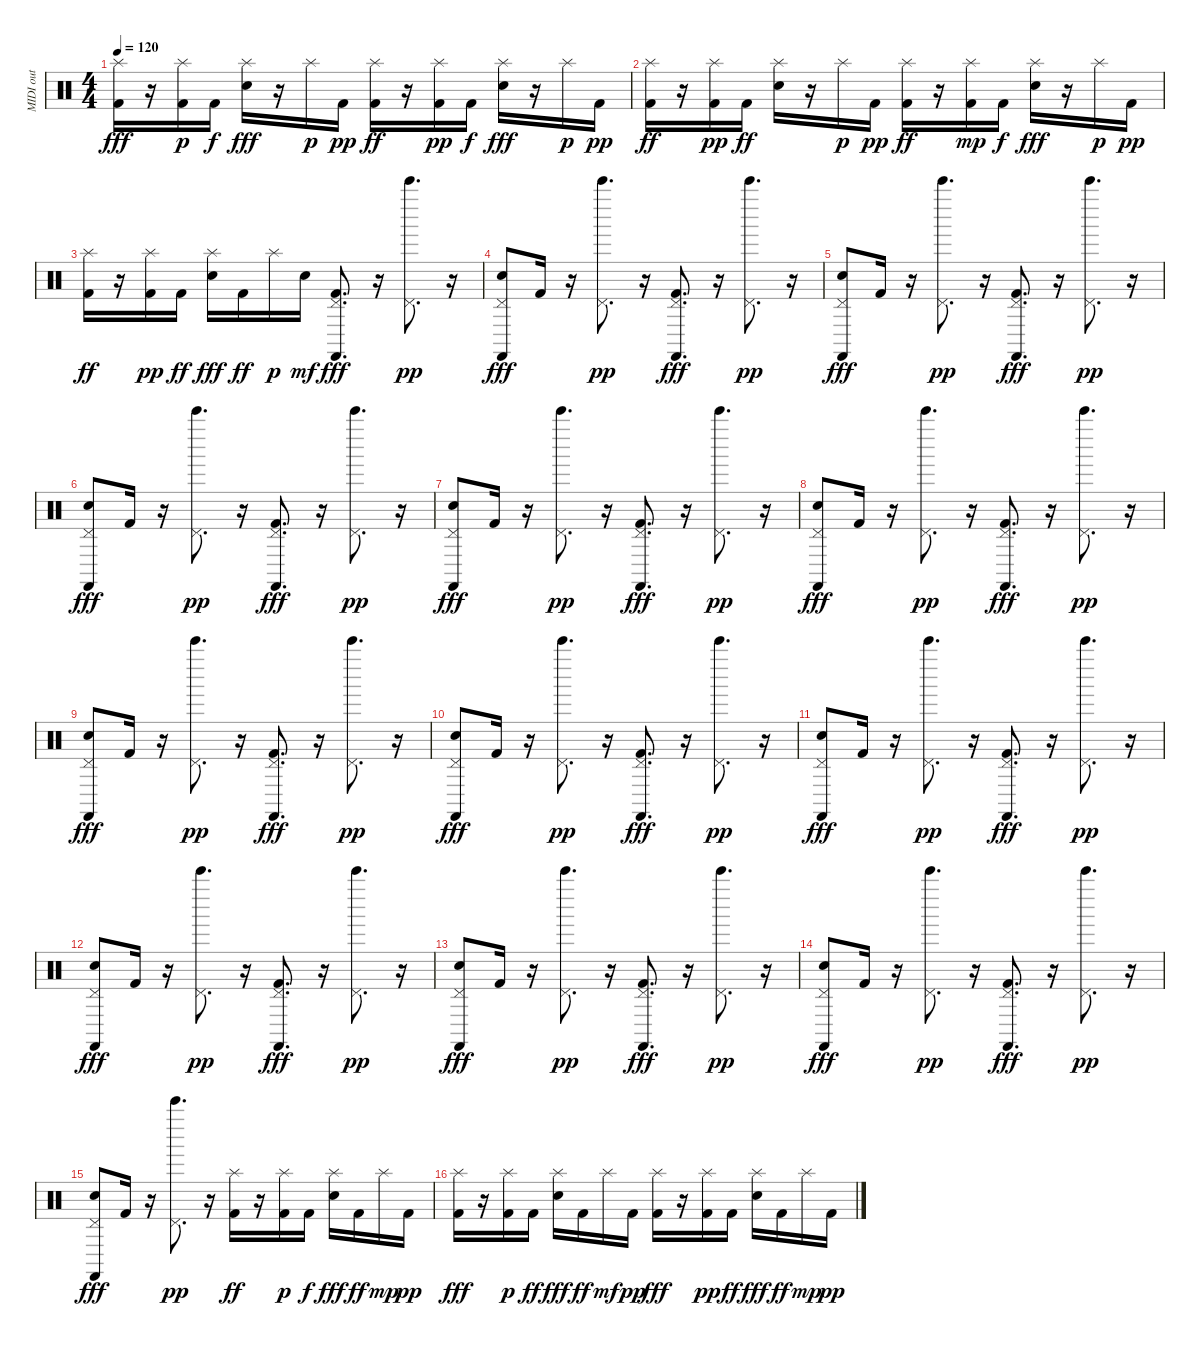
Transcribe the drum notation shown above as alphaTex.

\track ("MIDI out" "MIDI out") {instrument percussion}
\staff {score}
\articulation defaults
\ts (4 4)
\tempo 120
\clef neutral
\ks c
("Kick (hit) 2" "Splash (hit)").16{dy fff} r.16 ("Splash (hit)" "Kick (hit) 2").16{dy p} "Kick (hit) 2".16{dy f} ("Splash (hit)" "Snare (hit) 2").16{dy fff} r.16 "Splash (hit)".16{dy p} "Kick (hit) 2".16{dy pp} ("Splash (hit)" "Kick (hit) 2").16{dy ff} r.16 ("Splash (hit)" "Kick (hit) 2").16{dy pp} "Kick (hit) 2".16{dy f} ("Splash (hit)" "Snare (hit) 2").16{dy fff} r.16 "Splash (hit)".16{dy p} "Kick (hit) 2".16{dy pp} |
("Splash (hit)" "Kick (hit) 2").16{dy ff} r.16 ("Splash (hit)" "Kick (hit) 2").16{dy pp} "Kick (hit) 2".16{dy ff} ("Snare (hit) 2" "Splash (hit)").16 r.16 "Splash (hit)".16{dy p} "Kick (hit) 2".16{dy pp} ("Splash (hit)" "Kick (hit) 2").16{dy ff} r.16 ("Kick (hit) 2" "Splash (hit)").16{dy mp} "Kick (hit) 2".16{dy f} ("Snare (hit) 2" "Splash (hit)").16{dy fff} r.16 "Splash (hit)".16{dy p} "Kick (hit) 2".16{dy pp} |
("Kick (hit) 2" "Splash (hit)").16{dy ff} r.16 ("Splash (hit)" "Kick (hit) 2").16{dy pp} "Kick (hit) 2".16{dy ff} ("Splash (hit)" "Snare (hit) 2").16{dy fff} "Kick (hit) 2".16{dy ff} "Splash (hit)".16{dy p} "Snare (hit) 2".16{dy mf} ("Pedal Hi-Hat (hit)" "Kick (hit) 2" "Castanets (hit)").8{d dy fff} r.16 ("Pedal Hi-Hat (hit)" "Bell Tree (hit)").8{d dy pp} r.16 |
("Snare (hit) 2" "Pedal Hi-Hat (hit)" "Castanets (hit)").8{dy fff} "Kick (hit) 2".16 r.16 ("Pedal Hi-Hat (hit)" "Bell Tree (hit)").8{d dy pp} r.16 ("Pedal Hi-Hat (hit)" "Kick (hit) 2" "Castanets (hit)").8{d dy fff} r.16 ("Pedal Hi-Hat (hit)" "Bell Tree (hit)").8{d dy pp} r.16 |
("Snare (hit) 2" "Pedal Hi-Hat (hit)" "Castanets (hit)").8{dy fff} "Kick (hit) 2".16 r.16 ("Pedal Hi-Hat (hit)" "Bell Tree (hit)").8{d dy pp} r.16 ("Pedal Hi-Hat (hit)" "Kick (hit) 2" "Castanets (hit)").8{d dy fff} r.16 ("Pedal Hi-Hat (hit)" "Bell Tree (hit)").8{d dy pp} r.16 |
("Snare (hit) 2" "Pedal Hi-Hat (hit)" "Castanets (hit)").8{dy fff} "Kick (hit) 2".16 r.16 ("Pedal Hi-Hat (hit)" "Bell Tree (hit)").8{d dy pp} r.16 ("Pedal Hi-Hat (hit)" "Kick (hit) 2" "Castanets (hit)").8{d dy fff} r.16 ("Pedal Hi-Hat (hit)" "Bell Tree (hit)").8{d dy pp} r.16 |
("Snare (hit) 2" "Pedal Hi-Hat (hit)" "Castanets (hit)").8{dy fff} "Kick (hit) 2".16 r.16 ("Pedal Hi-Hat (hit)" "Bell Tree (hit)").8{d dy pp} r.16 ("Pedal Hi-Hat (hit)" "Kick (hit) 2" "Castanets (hit)").8{d dy fff} r.16 ("Pedal Hi-Hat (hit)" "Bell Tree (hit)").8{d dy pp} r.16 |
("Snare (hit) 2" "Pedal Hi-Hat (hit)" "Castanets (hit)").8{dy fff} "Kick (hit) 2".16 r.16 ("Pedal Hi-Hat (hit)" "Bell Tree (hit)").8{d dy pp} r.16 ("Pedal Hi-Hat (hit)" "Kick (hit) 2" "Castanets (hit)").8{d dy fff} r.16 ("Pedal Hi-Hat (hit)" "Bell Tree (hit)").8{d dy pp} r.16 |
("Snare (hit) 2" "Pedal Hi-Hat (hit)" "Castanets (hit)").8{dy fff} "Kick (hit) 2".16 r.16 ("Pedal Hi-Hat (hit)" "Bell Tree (hit)").8{d dy pp} r.16 ("Pedal Hi-Hat (hit)" "Kick (hit) 2" "Castanets (hit)").8{d dy fff} r.16 ("Pedal Hi-Hat (hit)" "Bell Tree (hit)").8{d dy pp} r.16 |
("Snare (hit) 2" "Pedal Hi-Hat (hit)" "Castanets (hit)").8{dy fff} "Kick (hit) 2".16 r.16 ("Pedal Hi-Hat (hit)" "Bell Tree (hit)").8{d dy pp} r.16 ("Pedal Hi-Hat (hit)" "Kick (hit) 2" "Castanets (hit)").8{d dy fff} r.16 ("Pedal Hi-Hat (hit)" "Bell Tree (hit)").8{d dy pp} r.16 |
("Snare (hit) 2" "Pedal Hi-Hat (hit)" "Castanets (hit)").8{dy fff} "Kick (hit) 2".16 r.16 ("Pedal Hi-Hat (hit)" "Bell Tree (hit)").8{d dy pp} r.16 ("Pedal Hi-Hat (hit)" "Kick (hit) 2" "Castanets (hit)").8{d dy fff} r.16 ("Pedal Hi-Hat (hit)" "Bell Tree (hit)").8{d dy pp} r.16 |
("Snare (hit) 2" "Pedal Hi-Hat (hit)" "Castanets (hit)").8{dy fff} "Kick (hit) 2".16 r.16 ("Pedal Hi-Hat (hit)" "Bell Tree (hit)").8{d dy pp} r.16 ("Pedal Hi-Hat (hit)" "Kick (hit) 2" "Castanets (hit)").8{d dy fff} r.16 ("Pedal Hi-Hat (hit)" "Bell Tree (hit)").8{d dy pp} r.16 |
("Snare (hit) 2" "Pedal Hi-Hat (hit)" "Castanets (hit)").8{dy fff} "Kick (hit) 2".16 r.16 ("Pedal Hi-Hat (hit)" "Bell Tree (hit)").8{d dy pp} r.16 ("Pedal Hi-Hat (hit)" "Kick (hit) 2" "Castanets (hit)").8{d dy fff} r.16 ("Pedal Hi-Hat (hit)" "Bell Tree (hit)").8{d dy pp} r.16 |
("Snare (hit) 2" "Pedal Hi-Hat (hit)" "Castanets (hit)").8{dy fff} "Kick (hit) 2".16 r.16 ("Pedal Hi-Hat (hit)" "Bell Tree (hit)").8{d dy pp} r.16 ("Pedal Hi-Hat (hit)" "Kick (hit) 2" "Castanets (hit)").8{d dy fff} r.16 ("Pedal Hi-Hat (hit)" "Bell Tree (hit)").8{d dy pp} r.16 |
("Snare (hit) 2" "Pedal Hi-Hat (hit)" "Castanets (hit)").8{dy fff} "Kick (hit) 2".16 r.16 ("Pedal Hi-Hat (hit)" "Bell Tree (hit)").8{d dy pp} r.16 ("Splash (hit)" "Kick (hit) 2").16{dy ff} r.16 ("Kick (hit) 2" "Splash (hit)").16{dy p} "Kick (hit) 2".16{dy f} ("Splash (hit)" "Snare (hit) 2").16{dy fff} "Kick (hit) 2".16{dy ff} "Splash (hit)".16{dy mp} "Kick (hit) 2".16{dy pp} |
("Kick (hit) 2" "Splash (hit)").16{dy fff} r.16 ("Splash (hit)" "Kick (hit) 2").16{dy p} "Kick (hit) 2".16{dy ff} ("Splash (hit)" "Snare (hit) 2").16{dy fff} "Kick (hit) 2".16{dy ff} "Splash (hit)".16{dy mf} "Kick (hit) 2".16{dy pp} ("Kick (hit) 2" "Splash (hit)").16{dy fff} r.16 ("Splash (hit)" "Kick (hit) 2").16{dy pp} "Kick (hit) 2".16{dy ff} ("Snare (hit) 2" "Splash (hit)").16{dy fff} "Kick (hit) 2".16{dy ff} "Splash (hit)".16{dy mp} "Kick (hit) 2".16{dy pp}
